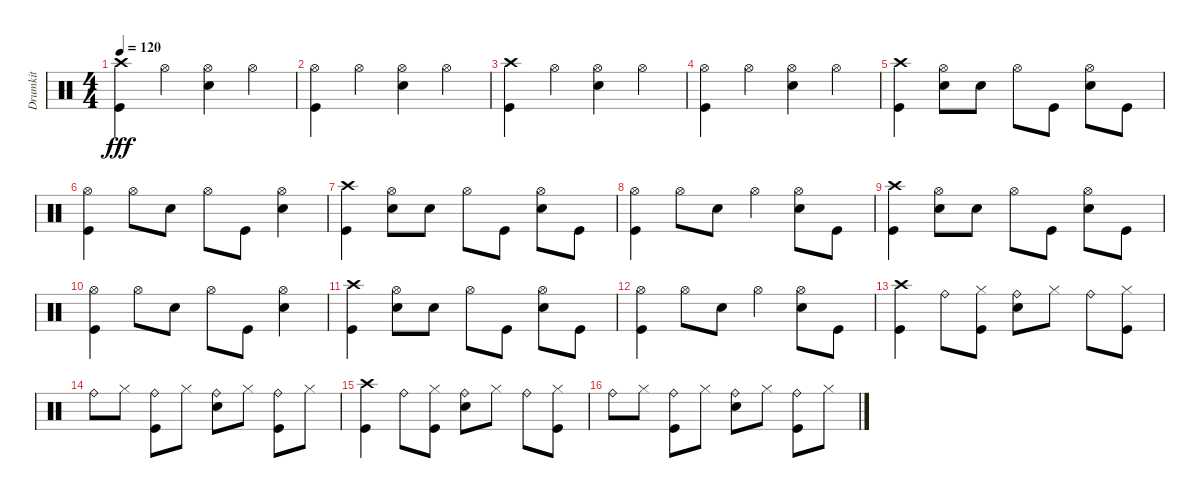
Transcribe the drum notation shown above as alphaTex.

\track ("Drumkit" "Drumkit") {instrument percussion}
\staff {score}
\articulation defaults
\ts (4 4)
\tempo 120
\clef neutral
\ks c
("Kick (hit)" "Crash high (hit)").4{dy fff} "Hi-Hat (open)".4 ("Snare (hit) 2" "Hi-Hat (open)").4 "Hi-Hat (open)".4 |
("Kick (hit)" "Hi-Hat (open)").4 "Hi-Hat (open)".4 ("Snare (hit) 2" "Hi-Hat (open)").4 "Hi-Hat (open)".4 |
("Kick (hit)" "Crash high (hit)").4 "Hi-Hat (open)".4 ("Snare (hit) 2" "Hi-Hat (open)").4 "Hi-Hat (open)".4 |
("Kick (hit)" "Hi-Hat (open)").4 "Hi-Hat (open)".4 ("Snare (hit) 2" "Hi-Hat (open)").4 "Hi-Hat (open)".4 |
("Kick (hit)" "Crash high (hit)").4 ("Snare (hit) 2" "Hi-Hat (open)").8 "Snare (hit) 2".8 "Hi-Hat (open)".8 "Kick (hit)".8 ("Snare (hit) 2" "Hi-Hat (open)").8 "Kick (hit)".8 |
("Kick (hit)" "Hi-Hat (open)").4 "Hi-Hat (open)".8 "Snare (hit) 2".8 "Hi-Hat (open)".8 "Kick (hit)".8 ("Hi-Hat (open)" "Snare (hit) 2").4 |
("Kick (hit)" "Crash high (hit)").4 ("Snare (hit) 2" "Hi-Hat (open)").8 "Snare (hit) 2".8 "Hi-Hat (open)".8 "Kick (hit)".8 ("Snare (hit) 2" "Hi-Hat (open)").8 "Kick (hit)".8 |
("Kick (hit)" "Hi-Hat (open)").4 "Hi-Hat (open)".8 "Snare (hit) 2".8 "Hi-Hat (open)".4 ("Hi-Hat (open)" "Snare (hit) 2").8 "Kick (hit)".8 |
("Kick (hit)" "Crash high (hit)").4 ("Snare (hit) 2" "Hi-Hat (open)").8 "Snare (hit) 2".8 "Hi-Hat (open)".8 "Kick (hit)".8 ("Snare (hit) 2" "Hi-Hat (open)").8 "Kick (hit)".8 |
("Kick (hit)" "Hi-Hat (open)").4 "Hi-Hat (open)".8 "Snare (hit) 2".8 "Hi-Hat (open)".8 "Kick (hit)".8 ("Hi-Hat (open)" "Snare (hit) 2").4 |
("Kick (hit)" "Crash high (hit)").4 ("Snare (hit) 2" "Hi-Hat (open)").8 "Snare (hit) 2".8 "Hi-Hat (open)".8 "Kick (hit)".8 ("Snare (hit) 2" "Hi-Hat (open)").8 "Kick (hit)".8 |
("Kick (hit)" "Hi-Hat (open)").4 "Hi-Hat (open)".8 "Snare (hit) 2".8 "Hi-Hat (open)".4 ("Hi-Hat (open)" "Snare (hit) 2").8 "Kick (hit)".8 |
("Kick (hit)" "Crash high (hit)").4 "Ride (bell)".8 ("Kick (hit)" "Hi-Hat (closed)").8 ("Snare (hit) 2" "Ride (bell)").8 "Hi-Hat (closed)".8 "Ride (bell)".8 ("Hi-Hat (closed)" "Kick (hit)").8 |
"Ride (bell)".8 "Hi-Hat (closed)".8 ("Ride (bell)" "Kick (hit)").8 "Hi-Hat (closed)".8 ("Ride (bell)" "Snare (hit) 2").8 "Hi-Hat (closed)".8 ("Ride (bell)" "Kick (hit)").8 "Hi-Hat (closed)".8 |
("Kick (hit)" "Crash high (hit)").4 "Ride (bell)".8 ("Kick (hit)" "Hi-Hat (closed)").8 ("Snare (hit) 2" "Ride (bell)").8 "Hi-Hat (closed)".8 "Ride (bell)".8 ("Hi-Hat (closed)" "Kick (hit)").8 |
"Ride (bell)".8 "Hi-Hat (closed)".8 ("Ride (bell)" "Kick (hit)").8 "Hi-Hat (closed)".8 ("Ride (bell)" "Snare (hit) 2").8 "Hi-Hat (closed)".8 ("Ride (bell)" "Kick (hit)").8 "Hi-Hat (closed)".8
